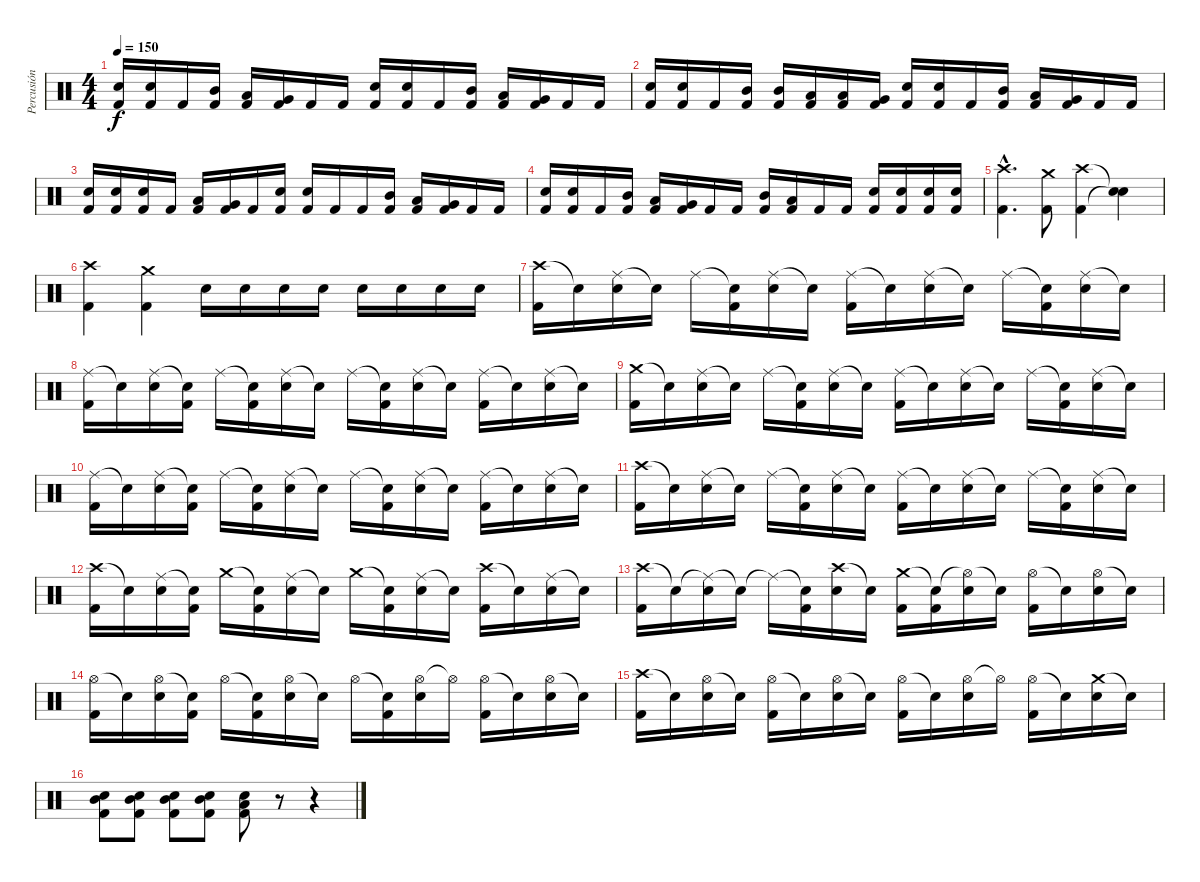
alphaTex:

\track ("Percusión" "Percusión") {instrument percussion}
\staff {score}
\articulation defaults
\ts (4 4)
\tempo 150
\clef neutral
\ks c
("Electric Snare (hit)" "Kick (hit) 2").16{dy f} ("Electric Snare (hit)" "Kick (hit) 2").16 "Kick (hit) 2".16 ("Mid Tom (hit)" "Kick (hit) 2").16 ("Low Tom (hit)" "Kick (hit) 2").16 ("Very Low Tom (hit)" "Kick (hit) 2").16 "Kick (hit) 2".16 "Kick (hit) 2".16 ("Electric Snare (hit)" "Kick (hit) 2").16 ("Electric Snare (hit)" "Kick (hit) 2").16 "Kick (hit) 2".16 ("Mid Tom (hit)" "Kick (hit) 2").16 ("Low Tom (hit)" "Kick (hit) 2").16 ("Very Low Tom (hit)" "Kick (hit) 2").16 "Kick (hit) 2".16 "Kick (hit) 2".16 |
("Electric Snare (hit)" "Kick (hit) 2").16 ("Electric Snare (hit)" "Kick (hit) 2").16 "Kick (hit) 2".16 ("Mid Tom (hit)" "Kick (hit) 2").16 ("Mid Tom (hit)" "Kick (hit) 2").16 ("Low Tom (hit)" "Kick (hit) 2").16 ("Low Tom (hit)" "Kick (hit) 2").16 ("Very Low Tom (hit)" "Kick (hit) 2").16 ("Electric Snare (hit)" "Kick (hit) 2").16 ("Electric Snare (hit)" "Kick (hit) 2").16 "Kick (hit) 2".16 ("Mid Tom (hit)" "Kick (hit) 2").16 ("Low Tom (hit)" "Kick (hit) 2").16 ("Very Low Tom (hit)" "Kick (hit) 2").16 "Kick (hit) 2".16 "Kick (hit) 2".16 |
("Electric Snare (hit)" "Kick (hit) 2").16 ("Electric Snare (hit)" "Kick (hit) 2").16 ("Electric Snare (hit)" "Kick (hit) 2").16 "Kick (hit) 2".16 ("Low Tom (hit)" "Kick (hit) 2").16 ("Very Low Tom (hit)" "Kick (hit) 2").16 "Kick (hit) 2".16 ("Electric Snare (hit)" "Kick (hit) 2").16 ("Electric Snare (hit)" "Kick (hit) 2").16 "Kick (hit) 2".16 "Kick (hit) 2".16 ("Mid Tom (hit)" "Kick (hit) 2").16 ("Low Tom (hit)" "Kick (hit) 2").16 ("Very Low Tom (hit)" "Kick (hit) 2").16 "Kick (hit) 2".16 "Kick (hit) 2".16 |
("Electric Snare (hit)" "Kick (hit) 2").16 ("Electric Snare (hit)" "Kick (hit) 2").16 "Kick (hit) 2".16 ("Mid Tom (hit)" "Kick (hit) 2").16 ("Low Tom (hit)" "Kick (hit) 2").16 ("Very Low Tom (hit)" "Kick (hit) 2").16 "Kick (hit) 2".16 "Kick (hit) 2".16 ("Mid Tom (hit)" "Kick (hit) 2").16 ("Low Tom (hit)" "Kick (hit) 2").16 "Kick (hit) 2".16 "Kick (hit) 2".16 ("Electric Snare (hit)" "Kick (hit) 2").16 ("Electric Snare (hit)" "Kick (hit) 2").16 ("Electric Snare (hit)" "Kick (hit) 2").16 ("Electric Snare (hit)" "Kick (hit) 2").16 |
("Crash high (hit)"{hac} "Kick (hit) 2"{hac}).4{d} ("Crash medium (hit)" "Kick (hit) 2").8 ("Crash high (hit)" "Kick (hit) 2").4 ("Snare (hit)"{t} "Snare (hit)"{t}).4 |
("Crash high (hit)" "Kick (hit) 2").4 ("Crash medium (hit)" "Kick (hit) 2").4 "Electric Snare (hit)".16 "Electric Snare (hit)".16 "Electric Snare (hit)".16 "Electric Snare (hit)".16 "Electric Snare (hit)".16 "Electric Snare (hit)".16 "Electric Snare (hit)".16 "Electric Snare (hit)".16 |
("Crash high (hit)" "Kick (hit) 2").16 "Snare (hit)"{t}.16 ("Ride (middle)" "Electric Snare (hit)").16 "Snare (hit)"{t}.16 "Ride (middle)".16 ("Snare (hit)"{t} "Kick (hit) 2").16 ("Ride (middle)" "Electric Snare (hit)").16 "Snare (hit)"{t}.16 ("Ride (middle)" "Kick (hit) 2").16 "Snare (hit)"{t}.16 ("Ride (middle)" "Electric Snare (hit)").16 "Snare (hit)"{t}.16 "Ride (middle)".16 ("Snare (hit)"{t} "Kick (hit) 2").16 ("Ride (middle)" "Electric Snare (hit)").16 "Snare (hit)"{t}.16 |
("Ride (middle)" "Kick (hit) 2").16 "Snare (hit)"{t}.16 ("Ride (middle)" "Electric Snare (hit)").16 ("Snare (hit)"{t} "Kick (hit) 2").16 "Ride (middle)".16 ("Snare (hit)"{t} "Kick (hit) 2").16 ("Ride (middle)" "Electric Snare (hit)").16 "Snare (hit)"{t}.16 "Ride (middle)".16 ("Snare (hit)"{t} "Kick (hit) 2").16 ("Ride (middle)" "Electric Snare (hit)").16 "Snare (hit)"{t}.16 ("Ride (middle)" "Kick (hit) 2").16 "Snare (hit)"{t}.16 ("Ride (middle)" "Electric Snare (hit)").16 "Snare (hit)"{t}.16 |
("Crash medium (hit)" "Kick (hit) 2").16 "Snare (hit)"{t}.16 ("Ride (middle)" "Electric Snare (hit)").16 "Snare (hit)"{t}.16 "Ride (middle)".16 ("Snare (hit)"{t} "Kick (hit) 2").16 ("Ride (middle)" "Electric Snare (hit)").16 "Snare (hit)"{t}.16 ("Ride (middle)" "Kick (hit) 2").16 "Snare (hit)"{t}.16 ("Ride (middle)" "Electric Snare (hit)").16 "Snare (hit)"{t}.16 "Ride (middle)".16 ("Snare (hit)"{t} "Kick (hit) 2").16 ("Ride (middle)" "Electric Snare (hit)").16 "Snare (hit)"{t}.16 |
("Ride (middle)" "Kick (hit) 2").16 "Snare (hit)"{t}.16 ("Ride (middle)" "Electric Snare (hit)").16 ("Snare (hit)"{t} "Kick (hit) 2").16 "Ride (middle)".16 ("Snare (hit)"{t} "Kick (hit) 2").16 ("Ride (middle)" "Electric Snare (hit)").16 "Snare (hit)"{t}.16 "Ride (middle)".16 ("Snare (hit)"{t} "Kick (hit) 2").16 ("Ride (middle)" "Electric Snare (hit)").16 "Snare (hit)"{t}.16 ("Ride (middle)" "Kick (hit) 2").16 "Snare (hit)"{t}.16 ("Ride (middle)" "Electric Snare (hit)").16 "Snare (hit)"{t}.16 |
("Crash high (hit)" "Kick (hit) 2").16 "Snare (hit)"{t}.16 ("Ride (middle)" "Electric Snare (hit)").16 "Snare (hit)"{t}.16 "Ride (middle)".16 ("Snare (hit)"{t} "Kick (hit) 2").16 ("Ride (middle)" "Electric Snare (hit)").16 "Snare (hit)"{t}.16 ("Ride (middle)" "Kick (hit) 2").16 "Snare (hit)"{t}.16 ("Ride (middle)" "Electric Snare (hit)").16 "Snare (hit)"{t}.16 "Ride (middle)".16 ("Snare (hit)"{t} "Kick (hit) 2").16 ("Ride (middle)" "Electric Snare (hit)").16 "Snare (hit)"{t}.16 |
("Crash high (hit)" "Kick (hit) 2").16 "Snare (hit)"{t}.16 ("Ride (middle)" "Electric Snare (hit)").16 ("Snare (hit)"{t} "Kick (hit) 2").16 "Crash medium (hit)".16 ("Snare (hit)"{t} "Kick (hit) 2").16 ("Ride (middle)" "Electric Snare (hit)").16 "Snare (hit)"{t}.16 "Crash medium (hit)".16 ("Snare (hit)"{t} "Kick (hit) 2").16 ("Ride (middle)" "Electric Snare (hit)").16 "Snare (hit)"{t}.16 ("Crash high (hit)" "Kick (hit) 2").16 "Snare (hit)"{t}.16 ("Ride (middle)" "Electric Snare (hit)").16 "Snare (hit)"{t}.16 |
("Crash high (hit)" "Kick (hit) 2").16 "Snare (hit)"{t}.16 ("Ride (middle)"{t} "Electric Snare (hit)").16 "Snare (hit)"{t}.16 "Ride (middle)"{t}.16 ("Snare (hit)"{t} "Kick (hit) 2").16 ("Crash high (hit)" "Electric Snare (hit)").16 "Snare (hit)"{t}.16 ("Crash medium (hit)" "Kick (hit) 2").16 ("Snare (hit)"{t} "Kick (hit) 2").16 ("Hi-Hat (open)"{t} "Electric Snare (hit)").16 "Snare (hit)"{t}.16 ("Hi-Hat (open)" "Kick (hit) 2").16 "Snare (hit)"{t}.16 ("Hi-Hat (open)" "Electric Snare (hit)").16 "Snare (hit)"{t}.16 |
("Hi-Hat (open)" "Kick (hit) 2").16 "Snare (hit)"{t}.16 ("Hi-Hat (open)" "Electric Snare (hit)").16 ("Snare (hit)"{t} "Kick (hit) 2").16 "Hi-Hat (open)".16 ("Snare (hit)"{t} "Kick (hit) 2").16 ("Hi-Hat (open)" "Electric Snare (hit)").16 "Snare (hit)"{t}.16 "Hi-Hat (open)".16 ("Snare (hit)"{t} "Kick (hit) 2").16 ("Hi-Hat (open)" "Electric Snare (hit)").16 "Hi-Hat (open)"{t}.16 ("Hi-Hat (open)" "Kick (hit) 2").16 "Snare (hit)"{t}.16 ("Hi-Hat (open)" "Electric Snare (hit)").16 "Snare (hit)"{t}.16 |
("Crash high (hit)" "Kick (hit) 2").16 "Snare (hit)"{t}.16 ("Hi-Hat (open)" "Electric Snare (hit)").16 "Snare (hit)"{t}.16 ("Hi-Hat (open)" "Kick (hit) 2").16 "Snare (hit)"{t}.16 ("Hi-Hat (open)" "Electric Snare (hit)").16 "Snare (hit)"{t}.16 ("Hi-Hat (open)" "Kick (hit) 2").16 "Snare (hit)"{t}.16 ("Hi-Hat (open)" "Electric Snare (hit)").16 "Hi-Hat (open)"{t}.16 ("Hi-Hat (open)" "Kick (hit) 2").16 "Snare (hit)"{t}.16 ("Crash medium (hit)" "Electric Snare (hit)").16 "Snare (hit)"{t}.16 |
("Electric Snare (hit)" "Mid Tom (hit)" "Kick (hit) 2").8 ("Electric Snare (hit)" "Mid Tom (hit)" "Kick (hit) 2").8 ("Electric Snare (hit)" "Mid Tom (hit)" "Kick (hit) 2").8 ("Electric Snare (hit)" "Mid Tom (hit)" "Kick (hit) 2").8 ("Electric Snare (hit)" "Low Tom (hit)" "Kick (hit) 2").8 r.8 r.4
